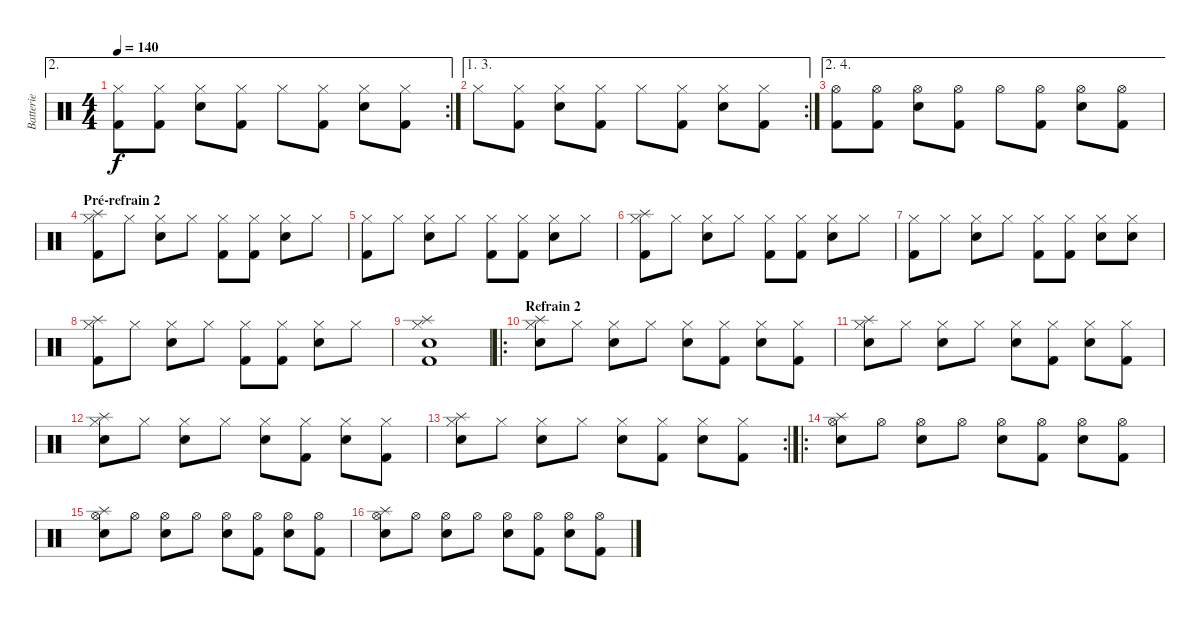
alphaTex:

\track ("Batterie" "Batterie") {instrument percussion}
\staff {score}
\articulation defaults
\ae 2
\rc 2
\ts (4 4)
\tempo 140
\clef neutral
\ks c
("Hi-Hat (closed)" "Kick (hit) 2").8{dy f} ("Hi-Hat (closed)" "Kick (hit) 2").8 ("Hi-Hat (closed)" "Snare (hit) 2").8 ("Hi-Hat (closed)" "Kick (hit) 2").8 "Hi-Hat (closed)".8 ("Hi-Hat (closed)" "Kick (hit) 2").8 ("Hi-Hat (closed)" "Snare (hit) 2").8 ("Hi-Hat (closed)" "Kick (hit) 2").8 |
\ae (1 3)
\rc 2 "Hi-Hat (closed)".8
("Hi-Hat (closed)" "Kick (hit) 2").8 ("Hi-Hat (closed)" "Snare (hit) 2").8 ("Hi-Hat (closed)" "Kick (hit) 2").8 "Hi-Hat (closed)".8 ("Hi-Hat (closed)" "Kick (hit) 2").8 ("Hi-Hat (closed)" "Snare (hit) 2").8 ("Hi-Hat (closed)" "Kick (hit) 2").8 |
\ae (2 4)
("Hi-Hat (open)" "Kick (hit) 2").8 ("Hi-Hat (open)" "Kick (hit) 2").8 ("Hi-Hat (open)" "Snare (hit) 2").8 ("Hi-Hat (open)" "Kick (hit) 2").8 "Hi-Hat (open)".8 ("Hi-Hat (open)" "Kick (hit) 2").8 ("Hi-Hat (open)" "Snare (hit) 2").8 ("Hi-Hat (open)" "Kick (hit) 2").8 |
\section ("" "Pré-refrain 2")
("Splash (hit)" "Hi-Hat (closed)" "Kick (hit) 2").8 "Hi-Hat (closed)".8 ("Hi-Hat (closed)" "Snare (hit) 2").8 "Hi-Hat (closed)".8 ("Hi-Hat (closed)" "Kick (hit) 2").8 ("Hi-Hat (closed)" "Kick (hit) 2").8 ("Hi-Hat (closed)" "Snare (hit) 2").8 "Hi-Hat (closed)".8 |
("Hi-Hat (closed)" "Kick (hit) 2").8 "Hi-Hat (closed)".8 ("Hi-Hat (closed)" "Snare (hit) 2").8 "Hi-Hat (closed)".8 ("Hi-Hat (closed)" "Kick (hit) 2").8 ("Hi-Hat (closed)" "Kick (hit) 2").8 ("Hi-Hat (closed)" "Snare (hit) 2").8 "Hi-Hat (closed)".8 |
("Splash (hit)" "Hi-Hat (closed)" "Kick (hit) 2").8 "Hi-Hat (closed)".8 ("Hi-Hat (closed)" "Snare (hit) 2").8 "Hi-Hat (closed)".8 ("Hi-Hat (closed)" "Kick (hit) 2").8 ("Hi-Hat (closed)" "Kick (hit) 2").8 ("Hi-Hat (closed)" "Snare (hit) 2").8 "Hi-Hat (closed)".8 |
("Hi-Hat (closed)" "Kick (hit) 2").8 "Hi-Hat (closed)".8 ("Hi-Hat (closed)" "Snare (hit) 2").8 "Hi-Hat (closed)".8 ("Hi-Hat (closed)" "Kick (hit) 2").8 ("Hi-Hat (closed)" "Kick (hit) 2").8 ("Hi-Hat (closed)" "Snare (hit) 2").8 ("Hi-Hat (closed)" "Snare (hit) 2").8 |
("Splash (hit)" "Hi-Hat (closed)" "Kick (hit) 2").8 "Hi-Hat (closed)".8 ("Hi-Hat (closed)" "Snare (hit) 2").8 "Hi-Hat (closed)".8 ("Hi-Hat (closed)" "Kick (hit) 2").8 ("Hi-Hat (closed)" "Kick (hit) 2").8 ("Hi-Hat (closed)" "Snare (hit) 2").8 "Hi-Hat (closed)".8 |
("Splash (hit)" "Hi-Hat (closed)" "Snare (hit) 2" "Kick (hit) 2").1 |
\ro
\section ("" "Refrain 2")
("Splash (hit)" "Hi-Hat (closed)" "Snare (hit) 2").8 "Hi-Hat (closed)".8 ("Hi-Hat (closed)" "Snare (hit) 2").8 "Hi-Hat (closed)".8 ("Hi-Hat (closed)" "Snare (hit) 2").8 ("Hi-Hat (closed)" "Kick (hit) 2").8 ("Hi-Hat (closed)" "Snare (hit) 2").8 ("Hi-Hat (closed)" "Kick (hit) 2").8 |
("Splash (hit)" "Hi-Hat (closed)" "Snare (hit) 2").8 "Hi-Hat (closed)".8 ("Hi-Hat (closed)" "Snare (hit) 2").8 "Hi-Hat (closed)".8 ("Hi-Hat (closed)" "Snare (hit) 2").8 ("Hi-Hat (closed)" "Kick (hit) 2").8 ("Hi-Hat (closed)" "Snare (hit) 2").8 ("Hi-Hat (closed)" "Kick (hit) 2").8 |
("Splash (hit)" "Hi-Hat (closed)" "Snare (hit) 2").8 "Hi-Hat (closed)".8 ("Hi-Hat (closed)" "Snare (hit) 2").8 "Hi-Hat (closed)".8 ("Hi-Hat (closed)" "Snare (hit) 2").8 ("Hi-Hat (closed)" "Kick (hit) 2").8 ("Hi-Hat (closed)" "Snare (hit) 2").8 ("Hi-Hat (closed)" "Kick (hit) 2").8 |
\rc 2
("Splash (hit)" "Hi-Hat (closed)" "Snare (hit) 2").8 "Hi-Hat (closed)".8 ("Hi-Hat (closed)" "Snare (hit) 2").8 "Hi-Hat (closed)".8 ("Hi-Hat (closed)" "Snare (hit) 2").8 ("Hi-Hat (closed)" "Kick (hit) 2").8 ("Hi-Hat (closed)" "Snare (hit) 2").8 ("Hi-Hat (closed)" "Kick (hit) 2").8 |
\ro
("Splash (hit)" "Hi-Hat (open)" "Snare (hit) 2").8 "Hi-Hat (open)".8 ("Hi-Hat (open)" "Snare (hit) 2").8 "Hi-Hat (open)".8 ("Hi-Hat (open)" "Snare (hit) 2").8 ("Hi-Hat (open)" "Kick (hit) 2").8 ("Hi-Hat (open)" "Snare (hit) 2").8 ("Hi-Hat (open)" "Kick (hit) 2").8 |
("Splash (hit)" "Hi-Hat (open)" "Snare (hit) 2").8 "Hi-Hat (open)".8 ("Hi-Hat (open)" "Snare (hit) 2").8 "Hi-Hat (open)".8 ("Hi-Hat (open)" "Snare (hit) 2").8 ("Hi-Hat (open)" "Kick (hit) 2").8 ("Hi-Hat (open)" "Snare (hit) 2").8 ("Hi-Hat (open)" "Kick (hit) 2").8 |
("Splash (hit)" "Hi-Hat (open)" "Snare (hit) 2").8 "Hi-Hat (open)".8 ("Hi-Hat (open)" "Snare (hit) 2").8 "Hi-Hat (open)".8 ("Hi-Hat (open)" "Snare (hit) 2").8 ("Hi-Hat (open)" "Kick (hit) 2").8 ("Hi-Hat (open)" "Snare (hit) 2").8 ("Hi-Hat (open)" "Kick (hit) 2").8
